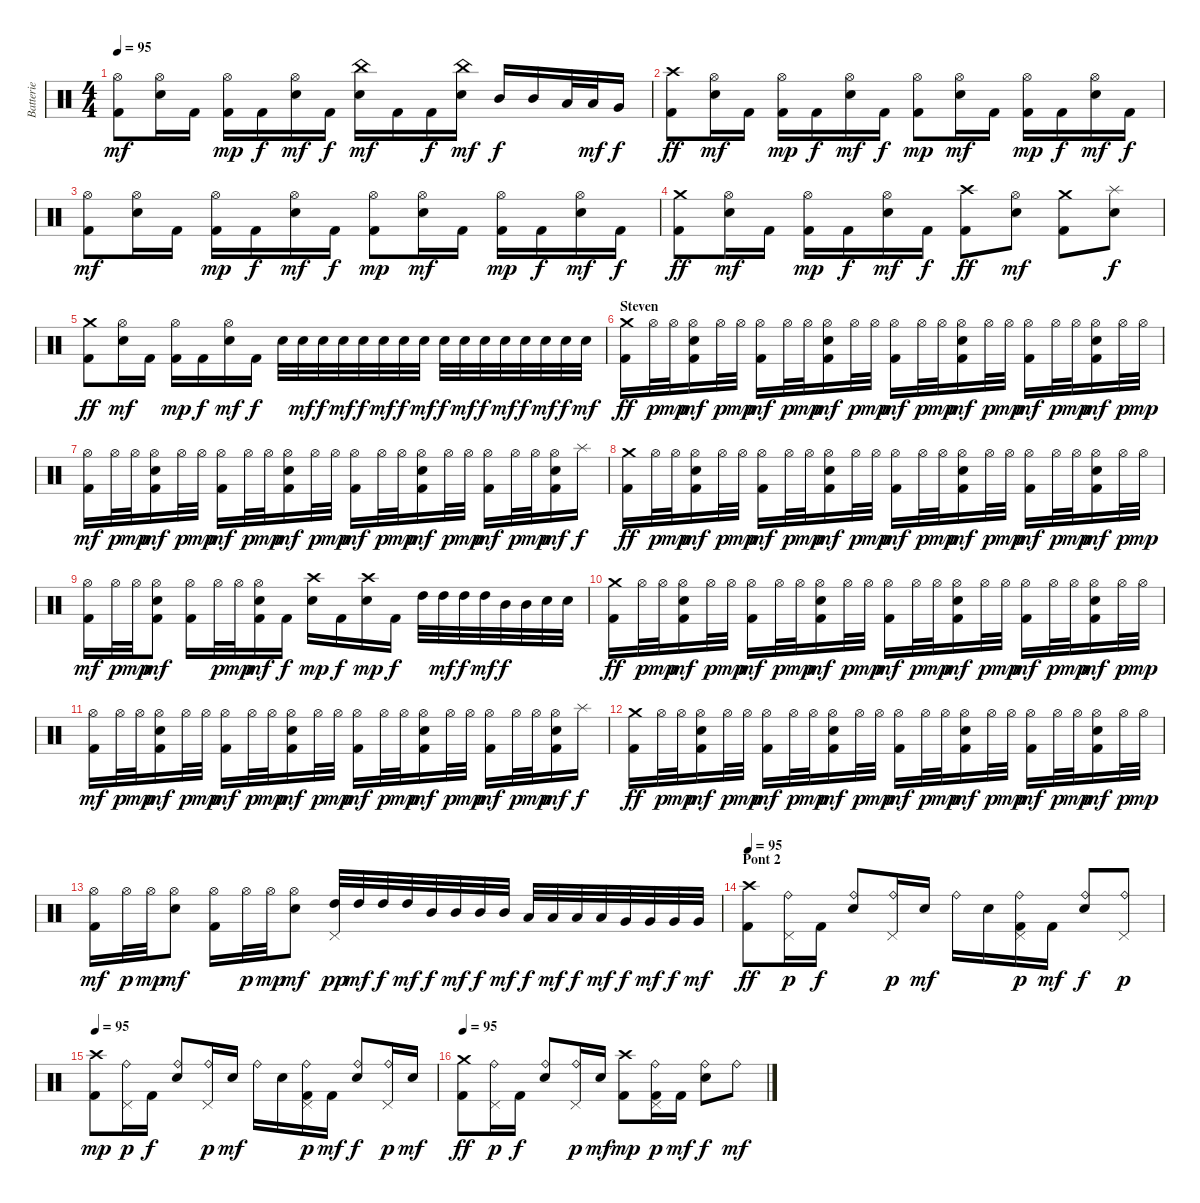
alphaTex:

\track ("Batterie" "Batterie") {instrument percussion}
\staff {score}
\articulation defaults
\ts (4 4)
\tempo 95
\clef neutral
\ks c
("Hi-Hat (open)" "Kick (hit) 2").8{dy mf} ("Hi-Hat (open)" "Electric Snare (hit)").16 "Kick (hit) 2".16 ("Hi-Hat (open)" "Kick (hit) 2").16{dy mp} "Kick (hit) 2".16{dy f} ("Hi-Hat (open)" "Electric Snare (hit)").16{dy mf} "Kick (hit) 2".16{dy f} ("China (hit)" "Electric Snare (hit)").16{dy mf} "Kick (hit) 2".16 "Kick (hit) 2".16{dy f} ("China (hit)" "Electric Snare (hit)").16{dy mf} "Mid Tom (hit)".16{dy f} "Mid Tom (hit)".16 "Low Tom (hit)".32 "Low Tom (hit)".32{dy mf} "Very Low Tom (hit)".16{dy f} |
("Crash high (hit)" "Kick (hit) 2").8{dy ff} ("Hi-Hat (open)" "Electric Snare (hit)").16{dy mf} "Kick (hit) 2".16 ("Hi-Hat (open)" "Kick (hit) 2").16{dy mp} "Kick (hit) 2".16{dy f} ("Hi-Hat (open)" "Electric Snare (hit)").16{dy mf} "Kick (hit) 2".16{dy f} ("Hi-Hat (open)" "Kick (hit) 2").8{dy mp} ("Hi-Hat (open)" "Electric Snare (hit)").16{dy mf} "Kick (hit) 2".16 ("Hi-Hat (open)" "Kick (hit) 2").16{dy mp} "Kick (hit) 2".16{dy f} ("Hi-Hat (open)" "Electric Snare (hit)").16{dy mf} "Kick (hit) 2".16{dy f} |
("Hi-Hat (open)" "Kick (hit) 2").8{dy mf} ("Hi-Hat (open)" "Electric Snare (hit)").16 "Kick (hit) 2".16 ("Hi-Hat (open)" "Kick (hit) 2").16{dy mp} "Kick (hit) 2".16{dy f} ("Hi-Hat (open)" "Electric Snare (hit)").16{dy mf} "Kick (hit) 2".16{dy f} ("Hi-Hat (open)" "Kick (hit) 2").8{dy mp} ("Hi-Hat (open)" "Electric Snare (hit)").16{dy mf} "Kick (hit) 2".16 ("Hi-Hat (open)" "Kick (hit) 2").16{dy mp} "Kick (hit) 2".16{dy f} ("Hi-Hat (open)" "Electric Snare (hit)").16{dy mf} "Kick (hit) 2".16{dy f} |
("Crash medium (hit)" "Kick (hit) 2").8{dy ff} ("Hi-Hat (open)" "Electric Snare (hit)").16{dy mf} "Kick (hit) 2".16 ("Hi-Hat (open)" "Kick (hit) 2").16{dy mp} "Kick (hit) 2".16{dy f} ("Hi-Hat (open)" "Electric Snare (hit)").16{dy mf} "Kick (hit) 2".16{dy f} ("Crash high (hit)" "Kick (hit) 2").8{dy ff} ("Hi-Hat (open)" "Electric Snare (hit)").8{dy mf} ("Crash medium (hit)" "Kick (hit) 2").8 ("Splash (hit)" "Electric Snare (hit)").8{dy f} |
("Crash medium (hit)" "Kick (hit) 2").8{dy ff} ("Hi-Hat (open)" "Electric Snare (hit)").16{dy mf} "Kick (hit) 2".16 ("Hi-Hat (open)" "Kick (hit) 2").16{dy mp} "Kick (hit) 2".16{dy f} ("Hi-Hat (open)" "Electric Snare (hit)").16{dy mf} "Kick (hit) 2".16{dy f} "Electric Snare (hit)".32 "Electric Snare (hit)".32{dy mf} "Electric Snare (hit)".32{dy f} "Electric Snare (hit)".32{dy mf} "Electric Snare (hit)".32{dy f} "Electric Snare (hit)".32{dy mf} "Electric Snare (hit)".32{dy f} "Electric Snare (hit)".32{dy mf} "Electric Snare (hit)".32{dy f} "Electric Snare (hit)".32{dy mf} "Electric Snare (hit)".32{dy f} "Electric Snare (hit)".32{dy mf} "Electric Snare (hit)".32{dy f} "Electric Snare (hit)".32{dy mf} "Electric Snare (hit)".32{dy f} "Electric Snare (hit)".32{dy mf} |
\section ("" "Steven")
("Crash medium (hit)" "Kick (hit) 2").16{dy ff} "Hi-Hat (open)".32{dy p} "Hi-Hat (open)".32{dy mp} ("Hi-Hat (open)" "Electric Snare (hit)" "Kick (hit) 2").16{dy mf} "Hi-Hat (open)".32{dy p} "Hi-Hat (open)".32{dy mp} ("Hi-Hat (open)" "Kick (hit) 2").16{dy mf} "Hi-Hat (open)".32{dy p} "Hi-Hat (open)".32{dy mp} ("Hi-Hat (open)" "Electric Snare (hit)" "Kick (hit) 2").16{dy mf} "Hi-Hat (open)".32{dy p} "Hi-Hat (open)".32{dy mp} ("Hi-Hat (open)" "Kick (hit) 2").16{dy mf} "Hi-Hat (open)".32{dy p} "Hi-Hat (open)".32{dy mp} ("Hi-Hat (open)" "Electric Snare (hit)" "Kick (hit) 2").16{dy mf} "Hi-Hat (open)".32{dy p} "Hi-Hat (open)".32{dy mp} ("Hi-Hat (open)" "Kick (hit) 2").16{dy mf} "Hi-Hat (open)".32{dy p} "Hi-Hat (open)".32{dy mp} ("Hi-Hat (open)" "Electric Snare (hit)" "Kick (hit) 2").16{dy mf} "Hi-Hat (open)".32{dy p} "Hi-Hat (open)".32{dy mp} |
("Hi-Hat (open)" "Kick (hit) 2").16{dy mf} "Hi-Hat (open)".32{dy p} "Hi-Hat (open)".32{dy mp} ("Hi-Hat (open)" "Electric Snare (hit)" "Kick (hit) 2").16{dy mf} "Hi-Hat (open)".32{dy p} "Hi-Hat (open)".32{dy mp} ("Hi-Hat (open)" "Kick (hit) 2").16{dy mf} "Hi-Hat (open)".32{dy p} "Hi-Hat (open)".32{dy mp} ("Hi-Hat (open)" "Electric Snare (hit)" "Kick (hit) 2").16{dy mf} "Hi-Hat (open)".32{dy p} "Hi-Hat (open)".32{dy mp} ("Hi-Hat (open)" "Kick (hit) 2").16{dy mf} "Hi-Hat (open)".32{dy p} "Hi-Hat (open)".32{dy mp} ("Hi-Hat (open)" "Electric Snare (hit)" "Kick (hit) 2").16{dy mf} "Hi-Hat (open)".32{dy p} "Hi-Hat (open)".32{dy mp} ("Hi-Hat (open)" "Kick (hit) 2").16{dy mf} "Hi-Hat (open)".32{dy p} "Hi-Hat (open)".32{dy mp} ("Hi-Hat (open)" "Electric Snare (hit)" "Kick (hit) 2").16{dy mf} "Splash (hit)".16{dy f} |
("Crash medium (hit)" "Kick (hit) 2").16{dy ff} "Hi-Hat (open)".32{dy p} "Hi-Hat (open)".32{dy mp} ("Hi-Hat (open)" "Electric Snare (hit)" "Kick (hit) 2").16{dy mf} "Hi-Hat (open)".32{dy p} "Hi-Hat (open)".32{dy mp} ("Hi-Hat (open)" "Kick (hit) 2").16{dy mf} "Hi-Hat (open)".32{dy p} "Hi-Hat (open)".32{dy mp} ("Hi-Hat (open)" "Electric Snare (hit)" "Kick (hit) 2").16{dy mf} "Hi-Hat (open)".32{dy p} "Hi-Hat (open)".32{dy mp} ("Hi-Hat (open)" "Kick (hit) 2").16{dy mf} "Hi-Hat (open)".32{dy p} "Hi-Hat (open)".32{dy mp} ("Hi-Hat (open)" "Electric Snare (hit)" "Kick (hit) 2").16{dy mf} "Hi-Hat (open)".32{dy p} "Hi-Hat (open)".32{dy mp} ("Hi-Hat (open)" "Kick (hit) 2").16{dy mf} "Hi-Hat (open)".32{dy p} "Hi-Hat (open)".32{dy mp} ("Hi-Hat (open)" "Electric Snare (hit)" "Kick (hit) 2").16{dy mf} "Hi-Hat (open)".32{dy p} "Hi-Hat (open)".32{dy mp} |
("Hi-Hat (open)" "Kick (hit) 2").16{dy mf} "Hi-Hat (open)".32{dy p} "Hi-Hat (open)".32{dy mp} ("Hi-Hat (open)" "Electric Snare (hit)" "Kick (hit) 2").8{dy mf} ("Hi-Hat (open)" "Kick (hit) 2").16 "Hi-Hat (open)".32{dy p} "Hi-Hat (open)".32{dy mp} ("Hi-Hat (open)" "Electric Snare (hit)" "Kick (hit) 2").16{dy mf} "Kick (hit) 2".16{dy f} ("Crash high (hit)" "Electric Snare (hit)").16{dy mp} "Kick (hit) 2".16{dy f} ("Crash high (hit)" "Electric Snare (hit)").16{dy mp} "Kick (hit) 2".16{dy f} "High Tom (hit)".32 "High Tom (hit)".32{dy mf} "High Tom (hit)".32{dy f} "High Tom (hit)".32{dy mf} "Mid Tom (hit)".32{dy f} "Mid Tom (hit)".32 "Electric Snare (hit)".32 "Electric Snare (hit)".32 |
("Crash medium (hit)" "Kick (hit) 2").16{dy ff} "Hi-Hat (open)".32{dy p} "Hi-Hat (open)".32{dy mp} ("Hi-Hat (open)" "Electric Snare (hit)" "Kick (hit) 2").16{dy mf} "Hi-Hat (open)".32{dy p} "Hi-Hat (open)".32{dy mp} ("Hi-Hat (open)" "Kick (hit) 2").16{dy mf} "Hi-Hat (open)".32{dy p} "Hi-Hat (open)".32{dy mp} ("Hi-Hat (open)" "Electric Snare (hit)" "Kick (hit) 2").16{dy mf} "Hi-Hat (open)".32{dy p} "Hi-Hat (open)".32{dy mp} ("Hi-Hat (open)" "Kick (hit) 2").16{dy mf} "Hi-Hat (open)".32{dy p} "Hi-Hat (open)".32{dy mp} ("Hi-Hat (open)" "Electric Snare (hit)" "Kick (hit) 2").16{dy mf} "Hi-Hat (open)".32{dy p} "Hi-Hat (open)".32{dy mp} ("Hi-Hat (open)" "Kick (hit) 2").16{dy mf} "Hi-Hat (open)".32{dy p} "Hi-Hat (open)".32{dy mp} ("Hi-Hat (open)" "Electric Snare (hit)" "Kick (hit) 2").16{dy mf} "Hi-Hat (open)".32{dy p} "Hi-Hat (open)".32{dy mp} |
("Hi-Hat (open)" "Kick (hit) 2").16{dy mf} "Hi-Hat (open)".32{dy p} "Hi-Hat (open)".32{dy mp} ("Hi-Hat (open)" "Electric Snare (hit)" "Kick (hit) 2").16{dy mf} "Hi-Hat (open)".32{dy p} "Hi-Hat (open)".32{dy mp} ("Hi-Hat (open)" "Kick (hit) 2").16{dy mf} "Hi-Hat (open)".32{dy p} "Hi-Hat (open)".32{dy mp} ("Hi-Hat (open)" "Electric Snare (hit)" "Kick (hit) 2").16{dy mf} "Hi-Hat (open)".32{dy p} "Hi-Hat (open)".32{dy mp} ("Hi-Hat (open)" "Kick (hit) 2").16{dy mf} "Hi-Hat (open)".32{dy p} "Hi-Hat (open)".32{dy mp} ("Hi-Hat (open)" "Electric Snare (hit)" "Kick (hit) 2").16{dy mf} "Hi-Hat (open)".32{dy p} "Hi-Hat (open)".32{dy mp} ("Hi-Hat (open)" "Kick (hit) 2").16{dy mf} "Hi-Hat (open)".32{dy p} "Hi-Hat (open)".32{dy mp} ("Hi-Hat (open)" "Electric Snare (hit)" "Kick (hit) 2").16{dy mf} "Splash (hit)".16{dy f} |
("Crash medium (hit)" "Kick (hit) 2").16{dy ff} "Hi-Hat (open)".32{dy p} "Hi-Hat (open)".32{dy mp} ("Hi-Hat (open)" "Electric Snare (hit)" "Kick (hit) 2").16{dy mf} "Hi-Hat (open)".32{dy p} "Hi-Hat (open)".32{dy mp} ("Hi-Hat (open)" "Kick (hit) 2").16{dy mf} "Hi-Hat (open)".32{dy p} "Hi-Hat (open)".32{dy mp} ("Hi-Hat (open)" "Electric Snare (hit)" "Kick (hit) 2").16{dy mf} "Hi-Hat (open)".32{dy p} "Hi-Hat (open)".32{dy mp} ("Hi-Hat (open)" "Kick (hit) 2").16{dy mf} "Hi-Hat (open)".32{dy p} "Hi-Hat (open)".32{dy mp} ("Hi-Hat (open)" "Electric Snare (hit)" "Kick (hit) 2").16{dy mf} "Hi-Hat (open)".32{dy p} "Hi-Hat (open)".32{dy mp} ("Hi-Hat (open)" "Kick (hit) 2").16{dy mf} "Hi-Hat (open)".32{dy p} "Hi-Hat (open)".32{dy mp} ("Hi-Hat (open)" "Electric Snare (hit)" "Kick (hit) 2").16{dy mf} "Hi-Hat (open)".32{dy p} "Hi-Hat (open)".32{dy mp} |
("Hi-Hat (open)" "Kick (hit) 2").16{dy mf} "Hi-Hat (open)".32{dy p} "Hi-Hat (open)".32{dy mp} ("Hi-Hat (open)" "Electric Snare (hit)").8{dy mf} ("Hi-Hat (open)" "Kick (hit) 2").16 "Hi-Hat (open)".32{dy p} "Hi-Hat (open)".32{dy mp} ("Hi-Hat (open)" "Electric Snare (hit)").8{dy mf} ("Pedal Hi-Hat (hit)" "High Tom (hit)").32{dy pp} "High Tom (hit)".32{dy mf} "High Tom (hit)".32{dy f} "High Tom (hit)".32{dy mf} "Mid Tom (hit)".32{dy f} "Mid Tom (hit)".32{dy mf} "Mid Tom (hit)".32{dy f} "Mid Tom (hit)".32{dy mf} "Low Tom (hit)".32{dy f} "Low Tom (hit)".32{dy mf} "Low Tom (hit)".32{dy f} "Low Tom (hit)".32{dy mf} "Very Low Tom (hit)".32{dy f} "Very Low Tom (hit)".32{dy mf} "Very Low Tom (hit)".32{dy f} "Very Low Tom (hit)".32{dy mf} |
\section ("" "Pont 2")
\tempo 95
("Crash high (hit)" "Kick (hit) 2").8{dy ff} ("Ride (bell)" "Pedal Hi-Hat (hit)").16{dy p} "Kick (hit) 2".16{dy f} ("Ride (bell)" "Electric Snare (hit)").8 ("Ride (bell)" "Pedal Hi-Hat (hit)").16{dy p} "Electric Snare (hit)".16{dy mf} "Ride (bell)".16 "Electric Snare (hit)".16 ("Ride (bell)" "Pedal Hi-Hat (hit)" "Kick (hit) 2").16{dy p} "Kick (hit) 2".16{dy mf} ("Ride (bell)" "Electric Snare (hit)").8{dy f} ("Ride (bell)" "Pedal Hi-Hat (hit)").8{dy p} |
\tempo 95
("Crash high (hit)" "Kick (hit) 2").8{dy mp} ("Ride (bell)" "Pedal Hi-Hat (hit)").16{dy p} "Kick (hit) 2".16{dy f} ("Ride (bell)" "Electric Snare (hit)").8 ("Ride (bell)" "Pedal Hi-Hat (hit)").16{dy p} "Electric Snare (hit)".16{dy mf} "Ride (bell)".16 "Electric Snare (hit)".16 ("Ride (bell)" "Pedal Hi-Hat (hit)" "Kick (hit) 2").16{dy p} "Kick (hit) 2".16{dy mf} ("Ride (bell)" "Electric Snare (hit)").8{dy f} ("Ride (bell)" "Pedal Hi-Hat (hit)").16{dy p} "Electric Snare (hit)".16{dy mf} |
\tempo 95
("Crash medium (hit)" "Kick (hit) 2").8{dy ff} ("Ride (bell)" "Pedal Hi-Hat (hit)").16{dy p} "Kick (hit) 2".16{dy f} ("Ride (bell)" "Electric Snare (hit)").8 ("Ride (bell)" "Pedal Hi-Hat (hit)").16{dy p} "Electric Snare (hit)".16{dy mf} ("Crash high (hit)" "Kick (hit) 2").8{dy mp} ("Ride (bell)" "Pedal Hi-Hat (hit)" "Kick (hit) 2").16{dy p} "Kick (hit) 2".16{dy mf} ("Ride (bell)" "Electric Snare (hit)").8{dy f} "Ride (bell)".8{dy mf}
